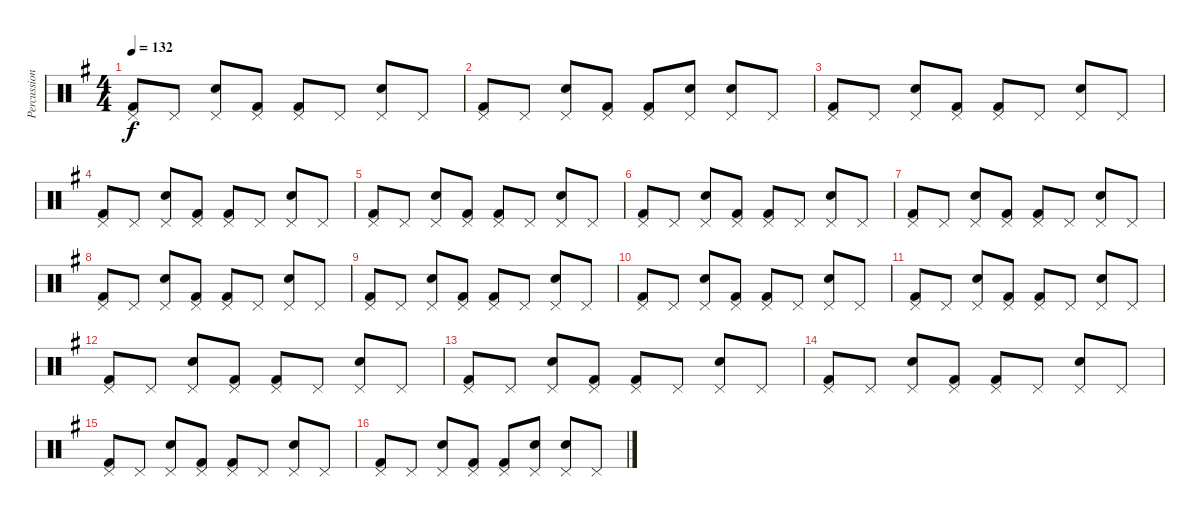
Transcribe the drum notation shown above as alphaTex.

\track ("Percussion" "Percussion") {instrument percussion}
\staff {score}
\articulation defaults
\ts (4 4)
\tempo 132
\clef neutral
\ks g
("Pedal Hi-Hat (hit)" "Kick (hit) 2").8{dy f} "Pedal Hi-Hat (hit)".8 ("Pedal Hi-Hat (hit)" "Snare (hit) 2").8 ("Pedal Hi-Hat (hit)" "Kick (hit) 2").8 ("Pedal Hi-Hat (hit)" "Kick (hit) 2").8 "Pedal Hi-Hat (hit)".8 ("Pedal Hi-Hat (hit)" "Snare (hit) 2").8 "Pedal Hi-Hat (hit)".8 |
("Pedal Hi-Hat (hit)" "Kick (hit) 2").8 "Pedal Hi-Hat (hit)".8 ("Pedal Hi-Hat (hit)" "Snare (hit) 2").8 ("Pedal Hi-Hat (hit)" "Kick (hit) 2").8 ("Pedal Hi-Hat (hit)" "Kick (hit) 2").8 ("Pedal Hi-Hat (hit)" "Snare (hit) 2").8 ("Pedal Hi-Hat (hit)" "Snare (hit) 2").8 "Pedal Hi-Hat (hit)".8 |
("Pedal Hi-Hat (hit)" "Kick (hit) 2").8 "Pedal Hi-Hat (hit)".8 ("Pedal Hi-Hat (hit)" "Snare (hit) 2").8 ("Pedal Hi-Hat (hit)" "Kick (hit) 2").8 ("Pedal Hi-Hat (hit)" "Kick (hit) 2").8 "Pedal Hi-Hat (hit)".8 ("Pedal Hi-Hat (hit)" "Snare (hit) 2").8 "Pedal Hi-Hat (hit)".8 |
("Pedal Hi-Hat (hit)" "Kick (hit) 2").8 "Pedal Hi-Hat (hit)".8 ("Pedal Hi-Hat (hit)" "Snare (hit) 2").8 ("Pedal Hi-Hat (hit)" "Kick (hit) 2").8 ("Pedal Hi-Hat (hit)" "Kick (hit) 2").8 "Pedal Hi-Hat (hit)".8 ("Pedal Hi-Hat (hit)" "Snare (hit) 2").8 "Pedal Hi-Hat (hit)".8 |
("Pedal Hi-Hat (hit)" "Kick (hit) 2").8 "Pedal Hi-Hat (hit)".8 ("Pedal Hi-Hat (hit)" "Snare (hit) 2").8 ("Pedal Hi-Hat (hit)" "Kick (hit) 2").8 ("Pedal Hi-Hat (hit)" "Kick (hit) 2").8 "Pedal Hi-Hat (hit)".8 ("Pedal Hi-Hat (hit)" "Snare (hit) 2").8 "Pedal Hi-Hat (hit)".8 |
("Pedal Hi-Hat (hit)" "Kick (hit) 2").8 "Pedal Hi-Hat (hit)".8 ("Pedal Hi-Hat (hit)" "Snare (hit) 2").8 ("Pedal Hi-Hat (hit)" "Kick (hit) 2").8 ("Pedal Hi-Hat (hit)" "Kick (hit) 2").8 "Pedal Hi-Hat (hit)".8 ("Pedal Hi-Hat (hit)" "Snare (hit) 2").8 "Pedal Hi-Hat (hit)".8 |
("Pedal Hi-Hat (hit)" "Kick (hit) 2").8 "Pedal Hi-Hat (hit)".8 ("Pedal Hi-Hat (hit)" "Snare (hit) 2").8 ("Pedal Hi-Hat (hit)" "Kick (hit) 2").8 ("Pedal Hi-Hat (hit)" "Kick (hit) 2").8 "Pedal Hi-Hat (hit)".8 ("Pedal Hi-Hat (hit)" "Snare (hit) 2").8 "Pedal Hi-Hat (hit)".8 |
("Pedal Hi-Hat (hit)" "Kick (hit) 2").8 "Pedal Hi-Hat (hit)".8 ("Pedal Hi-Hat (hit)" "Snare (hit) 2").8 ("Pedal Hi-Hat (hit)" "Kick (hit) 2").8 ("Pedal Hi-Hat (hit)" "Kick (hit) 2").8 "Pedal Hi-Hat (hit)".8 ("Pedal Hi-Hat (hit)" "Snare (hit) 2").8 "Pedal Hi-Hat (hit)".8 |
("Pedal Hi-Hat (hit)" "Kick (hit) 2").8 "Pedal Hi-Hat (hit)".8 ("Pedal Hi-Hat (hit)" "Snare (hit) 2").8 ("Pedal Hi-Hat (hit)" "Kick (hit) 2").8 ("Pedal Hi-Hat (hit)" "Kick (hit) 2").8 "Pedal Hi-Hat (hit)".8 ("Pedal Hi-Hat (hit)" "Snare (hit) 2").8 "Pedal Hi-Hat (hit)".8 |
("Pedal Hi-Hat (hit)" "Kick (hit) 2").8 "Pedal Hi-Hat (hit)".8 ("Pedal Hi-Hat (hit)" "Snare (hit) 2").8 ("Pedal Hi-Hat (hit)" "Kick (hit) 2").8 ("Pedal Hi-Hat (hit)" "Kick (hit) 2").8 "Pedal Hi-Hat (hit)".8 ("Pedal Hi-Hat (hit)" "Snare (hit) 2").8 "Pedal Hi-Hat (hit)".8 |
("Pedal Hi-Hat (hit)" "Kick (hit) 2").8 "Pedal Hi-Hat (hit)".8 ("Pedal Hi-Hat (hit)" "Snare (hit) 2").8 ("Pedal Hi-Hat (hit)" "Kick (hit) 2").8 ("Pedal Hi-Hat (hit)" "Kick (hit) 2").8 "Pedal Hi-Hat (hit)".8 ("Pedal Hi-Hat (hit)" "Snare (hit) 2").8 "Pedal Hi-Hat (hit)".8 |
("Pedal Hi-Hat (hit)" "Kick (hit) 2").8 "Pedal Hi-Hat (hit)".8 ("Pedal Hi-Hat (hit)" "Snare (hit) 2").8 ("Pedal Hi-Hat (hit)" "Kick (hit) 2").8 ("Pedal Hi-Hat (hit)" "Kick (hit) 2").8 "Pedal Hi-Hat (hit)".8 ("Pedal Hi-Hat (hit)" "Snare (hit) 2").8 "Pedal Hi-Hat (hit)".8 |
("Pedal Hi-Hat (hit)" "Kick (hit) 2").8 "Pedal Hi-Hat (hit)".8 ("Pedal Hi-Hat (hit)" "Snare (hit) 2").8 ("Pedal Hi-Hat (hit)" "Kick (hit) 2").8 ("Pedal Hi-Hat (hit)" "Kick (hit) 2").8 "Pedal Hi-Hat (hit)".8 ("Pedal Hi-Hat (hit)" "Snare (hit) 2").8 "Pedal Hi-Hat (hit)".8 |
("Pedal Hi-Hat (hit)" "Kick (hit) 2").8 "Pedal Hi-Hat (hit)".8 ("Pedal Hi-Hat (hit)" "Snare (hit) 2").8 ("Pedal Hi-Hat (hit)" "Kick (hit) 2").8 ("Pedal Hi-Hat (hit)" "Kick (hit) 2").8 "Pedal Hi-Hat (hit)".8 ("Pedal Hi-Hat (hit)" "Snare (hit) 2").8 "Pedal Hi-Hat (hit)".8 |
("Pedal Hi-Hat (hit)" "Kick (hit) 2").8 "Pedal Hi-Hat (hit)".8 ("Pedal Hi-Hat (hit)" "Snare (hit) 2").8 ("Pedal Hi-Hat (hit)" "Kick (hit) 2").8 ("Pedal Hi-Hat (hit)" "Kick (hit) 2").8 "Pedal Hi-Hat (hit)".8 ("Pedal Hi-Hat (hit)" "Snare (hit) 2").8 "Pedal Hi-Hat (hit)".8 |
("Pedal Hi-Hat (hit)" "Kick (hit) 2").8 "Pedal Hi-Hat (hit)".8 ("Pedal Hi-Hat (hit)" "Snare (hit) 2").8 ("Pedal Hi-Hat (hit)" "Kick (hit) 2").8 ("Pedal Hi-Hat (hit)" "Kick (hit) 2").8 ("Pedal Hi-Hat (hit)" "Snare (hit) 2").8 ("Pedal Hi-Hat (hit)" "Snare (hit) 2").8 "Pedal Hi-Hat (hit)".8
